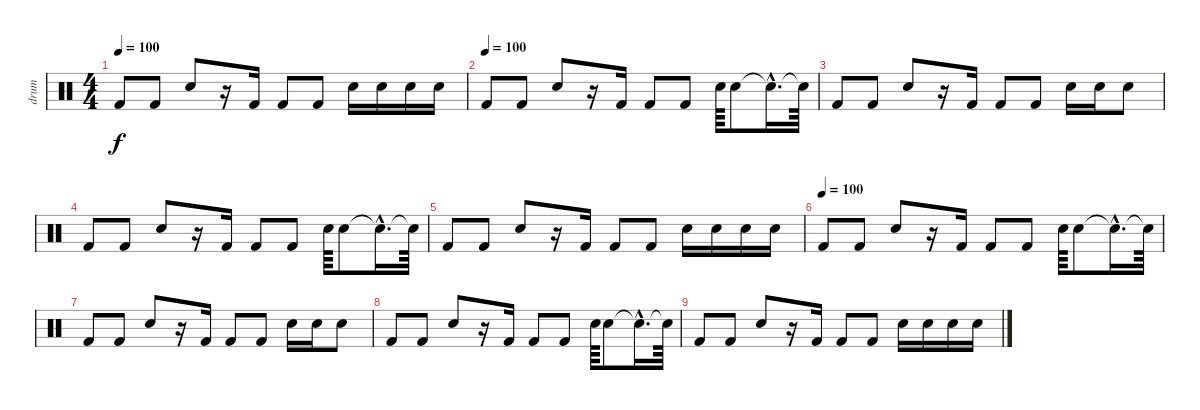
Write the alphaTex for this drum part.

\track ("drum" "drum") {instrument percussion}
\staff {score}
\articulation defaults
\ts (4 4)
\tempo 100
\clef neutral
\ks c "Kick (hit) 2".8{dy f volume 16} "Kick (hit) 2".8 "Snare (hit) 2".8
r.16 "Kick (hit) 2".16 "Kick (hit) 2".8 "Kick (hit) 2".8 "Snare (hit) 2".16 "Snare (hit) 2".16 "Snare (hit) 2".16 "Snare (hit) 2".16 |
\tempo (100)
"Kick (hit) 2".8{volume 16} "Kick (hit) 2".8 "Snare (hit) 2".8 r.16 "Kick (hit) 2".16 "Kick (hit) 2".8 "Kick (hit) 2".8 "Snare (hit) 2".64 "Snare (hit) 2".8 "Snare (hit) 2"{hac t}.16{d} "Snare (hit) 2"{t}.64 |
"Kick (hit) 2".8{volume 16} "Kick (hit) 2".8 "Snare (hit) 2".8 r.16 "Kick (hit) 2".16 "Kick (hit) 2".8 "Kick (hit) 2".8 "Snare (hit) 2".16 "Snare (hit) 2".16 "Snare (hit) 2".8 |
"Kick (hit) 2".8{volume 16} "Kick (hit) 2".8 "Snare (hit) 2".8 r.16 "Kick (hit) 2".16 "Kick (hit) 2".8 "Kick (hit) 2".8 "Snare (hit) 2".64 "Snare (hit) 2".8 "Snare (hit) 2"{hac t}.16{d} "Snare (hit) 2"{t}.64 |
"Kick (hit) 2".8{volume 16} "Kick (hit) 2".8 "Snare (hit) 2".8 r.16 "Kick (hit) 2".16 "Kick (hit) 2".8 "Kick (hit) 2".8 "Snare (hit) 2".16 "Snare (hit) 2".16 "Snare (hit) 2".16 "Snare (hit) 2".16 |
\tempo (100)
"Kick (hit) 2".8{volume 16} "Kick (hit) 2".8 "Snare (hit) 2".8 r.16 "Kick (hit) 2".16 "Kick (hit) 2".8 "Kick (hit) 2".8 "Snare (hit) 2".64 "Snare (hit) 2".8 "Snare (hit) 2"{hac t}.16{d} "Snare (hit) 2"{t}.64 |
"Kick (hit) 2".8{volume 16} "Kick (hit) 2".8 "Snare (hit) 2".8 r.16 "Kick (hit) 2".16 "Kick (hit) 2".8 "Kick (hit) 2".8 "Snare (hit) 2".16 "Snare (hit) 2".16 "Snare (hit) 2".8 |
"Kick (hit) 2".8{volume 16} "Kick (hit) 2".8 "Snare (hit) 2".8 r.16 "Kick (hit) 2".16 "Kick (hit) 2".8 "Kick (hit) 2".8 "Snare (hit) 2".64 "Snare (hit) 2".8 "Snare (hit) 2"{hac t}.16{d} "Snare (hit) 2"{t}.64 |
"Kick (hit) 2".8{volume 16} "Kick (hit) 2".8 "Snare (hit) 2".8 r.16 "Kick (hit) 2".16 "Kick (hit) 2".8 "Kick (hit) 2".8 "Snare (hit) 2".16 "Snare (hit) 2".16 "Snare (hit) 2".16 "Snare (hit) 2".16
